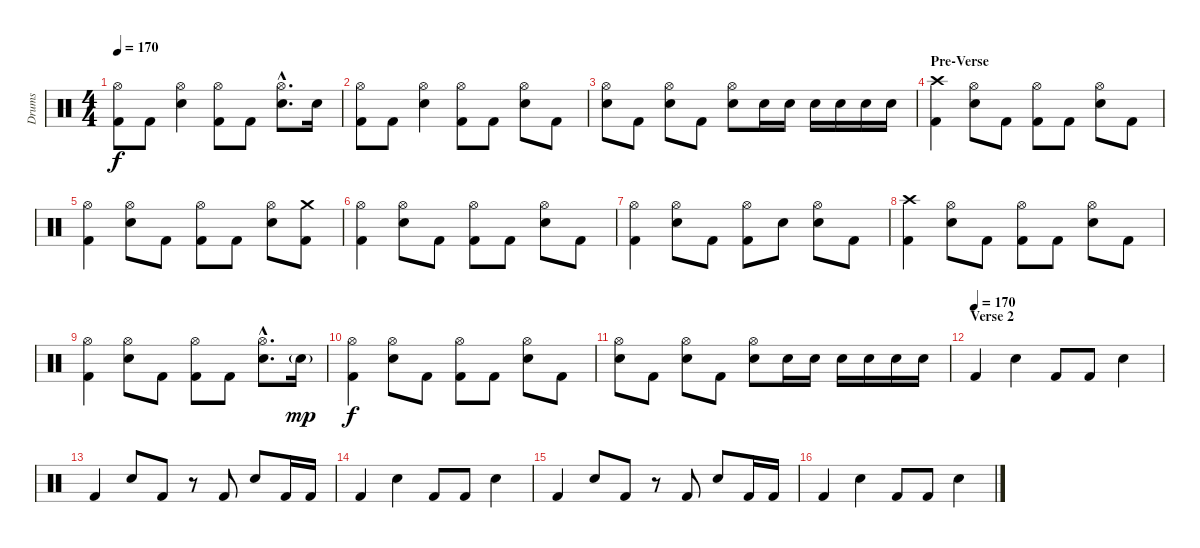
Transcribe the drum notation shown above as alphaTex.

\track ("Drums" "Drums") {instrument percussion}
\staff {score}
\articulation defaults
\ts (4 4)
\tempo 170
\clef neutral
\ks c
("Hi-Hat (open)" "Kick (hit) 2").8{dy f} "Kick (hit) 2".8 ("Hi-Hat (open)" "Electric Snare (hit)").4 ("Hi-Hat (open)" "Kick (hit) 2").8 "Kick (hit) 2".8 ("Hi-Hat (open)"{hac} "Electric Snare (hit)"{hac}).8{d} "Electric Snare (hit)".16 |
("Hi-Hat (open)" "Kick (hit) 2").8 "Kick (hit) 2".8 ("Hi-Hat (open)" "Electric Snare (hit)").4 ("Hi-Hat (open)" "Kick (hit) 2").8 "Kick (hit) 2".8 ("Hi-Hat (open)" "Electric Snare (hit)").8 "Kick (hit) 2".8 |
("Hi-Hat (open)" "Electric Snare (hit)").8 "Kick (hit) 2".8 ("Hi-Hat (open)" "Electric Snare (hit)").8 "Kick (hit) 2".8 ("Hi-Hat (open)" "Electric Snare (hit)").8 "Electric Snare (hit)".16 "Electric Snare (hit)".16 "Electric Snare (hit)".16 "Electric Snare (hit)".16 "Electric Snare (hit)".16 "Electric Snare (hit)".16 |
\section ("" "Pre-Verse")
("Crash high (hit)" "Kick (hit) 2").4 ("Hi-Hat (open)" "Electric Snare (hit)").8 "Kick (hit) 2".8 ("Hi-Hat (open)" "Kick (hit) 2").8 "Kick (hit) 2".8 ("Hi-Hat (open)" "Electric Snare (hit)").8 "Kick (hit) 2".8 |
("Hi-Hat (open)" "Kick (hit) 2").4 ("Hi-Hat (open)" "Electric Snare (hit)").8 "Kick (hit) 2".8 ("Hi-Hat (open)" "Kick (hit) 2").8 "Kick (hit) 2".8 ("Hi-Hat (open)" "Electric Snare (hit)").8 ("Crash medium (hit)" "Kick (hit) 2").8 |
("Hi-Hat (open)" "Kick (hit) 2").4 ("Hi-Hat (open)" "Electric Snare (hit)").8 "Kick (hit) 2".8 ("Hi-Hat (open)" "Kick (hit) 2").8 "Kick (hit) 2".8 ("Hi-Hat (open)" "Electric Snare (hit)").8 "Kick (hit) 2".8 |
("Hi-Hat (open)" "Kick (hit) 2").4 ("Hi-Hat (open)" "Electric Snare (hit)").8 "Kick (hit) 2".8 ("Hi-Hat (open)" "Kick (hit) 2").8 "Electric Snare (hit)".8 ("Hi-Hat (open)" "Electric Snare (hit)").8 "Kick (hit) 2".8 |
("Crash high (hit)" "Kick (hit) 2").4 ("Hi-Hat (open)" "Electric Snare (hit)").8 "Kick (hit) 2".8 ("Hi-Hat (open)" "Kick (hit) 2").8 "Kick (hit) 2".8 ("Hi-Hat (open)" "Electric Snare (hit)").8 "Kick (hit) 2".8 |
("Hi-Hat (open)" "Kick (hit) 2").4 ("Hi-Hat (open)" "Electric Snare (hit)").8 "Kick (hit) 2".8 ("Hi-Hat (open)" "Kick (hit) 2").8 "Kick (hit) 2".8 ("Hi-Hat (open)"{hac} "Electric Snare (hit)"{hac}).8{d} "Electric Snare (hit)"{g}.16{dy mp} |
("Hi-Hat (open)" "Kick (hit) 2").4{dy f} ("Hi-Hat (open)" "Electric Snare (hit)").8 "Kick (hit) 2".8 ("Hi-Hat (open)" "Kick (hit) 2").8 "Kick (hit) 2".8 ("Hi-Hat (open)" "Electric Snare (hit)").8 "Kick (hit) 2".8 |
("Hi-Hat (open)" "Electric Snare (hit)").8 "Kick (hit) 2".8 ("Hi-Hat (open)" "Electric Snare (hit)").8 "Kick (hit) 2".8 ("Hi-Hat (open)" "Electric Snare (hit)").8 "Electric Snare (hit)".16 "Electric Snare (hit)".16 "Electric Snare (hit)".16 "Electric Snare (hit)".16 "Electric Snare (hit)".16 "Electric Snare (hit)".16 |
\section ("" "Verse 2")
\tempo (170)
"Kick (hit) 2".4 "Electric Snare (hit)".4 "Kick (hit) 2".8 "Kick (hit) 2".8 "Electric Snare (hit)".4 |
"Kick (hit) 2".4 "Electric Snare (hit)".8 "Kick (hit) 2".8 r.8 "Kick (hit) 2".8 "Electric Snare (hit)".8 "Kick (hit) 2".16 "Kick (hit) 2".16 |
"Kick (hit) 2".4 "Electric Snare (hit)".4 "Kick (hit) 2".8 "Kick (hit) 2".8 "Electric Snare (hit)".4 |
"Kick (hit) 2".4 "Electric Snare (hit)".8 "Kick (hit) 2".8 r.8 "Kick (hit) 2".8 "Electric Snare (hit)".8 "Kick (hit) 2".16 "Kick (hit) 2".16 |
"Kick (hit) 2".4 "Electric Snare (hit)".4 "Kick (hit) 2".8 "Kick (hit) 2".8 "Electric Snare (hit)".4
